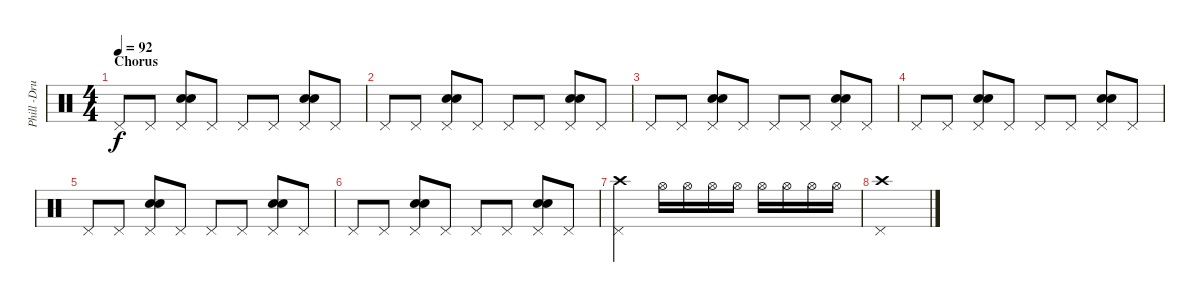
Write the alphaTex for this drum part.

\track ("Phill -Drums" "Phill -Dru") {instrument percussion}
\staff {score}
\articulation defaults
\ts (4 4)
\section ("" "Chorus")
\tempo 92
\clef neutral
\ks c "Pedal Hi-Hat (hit)".8{dy f} "Pedal Hi-Hat (hit)".8
("Pedal Hi-Hat (hit)" "Snare (hit) 2" "Snare (hit) 2").8 "Pedal Hi-Hat (hit)".8 "Pedal Hi-Hat (hit)".8 "Pedal Hi-Hat (hit)".8 ("Pedal Hi-Hat (hit)" "Snare (hit) 2" "Snare (hit) 2").8 "Pedal Hi-Hat (hit)".8 |
"Pedal Hi-Hat (hit)".8 "Pedal Hi-Hat (hit)".8 ("Pedal Hi-Hat (hit)" "Snare (hit) 2" "Snare (hit) 2").8 "Pedal Hi-Hat (hit)".8 "Pedal Hi-Hat (hit)".8 "Pedal Hi-Hat (hit)".8 ("Pedal Hi-Hat (hit)" "Snare (hit) 2" "Snare (hit) 2").8 "Pedal Hi-Hat (hit)".8 |
"Pedal Hi-Hat (hit)".8 "Pedal Hi-Hat (hit)".8 ("Pedal Hi-Hat (hit)" "Snare (hit) 2" "Snare (hit) 2").8 "Pedal Hi-Hat (hit)".8 "Pedal Hi-Hat (hit)".8 "Pedal Hi-Hat (hit)".8 ("Pedal Hi-Hat (hit)" "Snare (hit) 2" "Snare (hit) 2").8 "Pedal Hi-Hat (hit)".8 |
"Pedal Hi-Hat (hit)".8 "Pedal Hi-Hat (hit)".8 ("Pedal Hi-Hat (hit)" "Snare (hit) 2" "Snare (hit) 2").8 "Pedal Hi-Hat (hit)".8 "Pedal Hi-Hat (hit)".8 "Pedal Hi-Hat (hit)".8 ("Pedal Hi-Hat (hit)" "Snare (hit) 2" "Snare (hit) 2").8 "Pedal Hi-Hat (hit)".8 |
"Pedal Hi-Hat (hit)".8 "Pedal Hi-Hat (hit)".8 ("Pedal Hi-Hat (hit)" "Snare (hit) 2" "Snare (hit) 2").8 "Pedal Hi-Hat (hit)".8 "Pedal Hi-Hat (hit)".8 "Pedal Hi-Hat (hit)".8 ("Pedal Hi-Hat (hit)" "Snare (hit) 2" "Snare (hit) 2").8 "Pedal Hi-Hat (hit)".8 |
"Pedal Hi-Hat (hit)".8 "Pedal Hi-Hat (hit)".8 ("Pedal Hi-Hat (hit)" "Snare (hit) 2" "Snare (hit) 2").8 "Pedal Hi-Hat (hit)".8 "Pedal Hi-Hat (hit)".8 "Pedal Hi-Hat (hit)".8 ("Pedal Hi-Hat (hit)" "Snare (hit) 2" "Snare (hit) 2").8 "Pedal Hi-Hat (hit)".8 |
("Pedal Hi-Hat (hit)" "Crash high (hit)").2 "Hi-Hat (open)".16 "Hi-Hat (open)".16 "Hi-Hat (open)".16 "Hi-Hat (open)".16 "Hi-Hat (open)".16 "Hi-Hat (open)".16 "Hi-Hat (open)".16 "Hi-Hat (open)".16 |
("Pedal Hi-Hat (hit)" "Crash high (hit)").1
